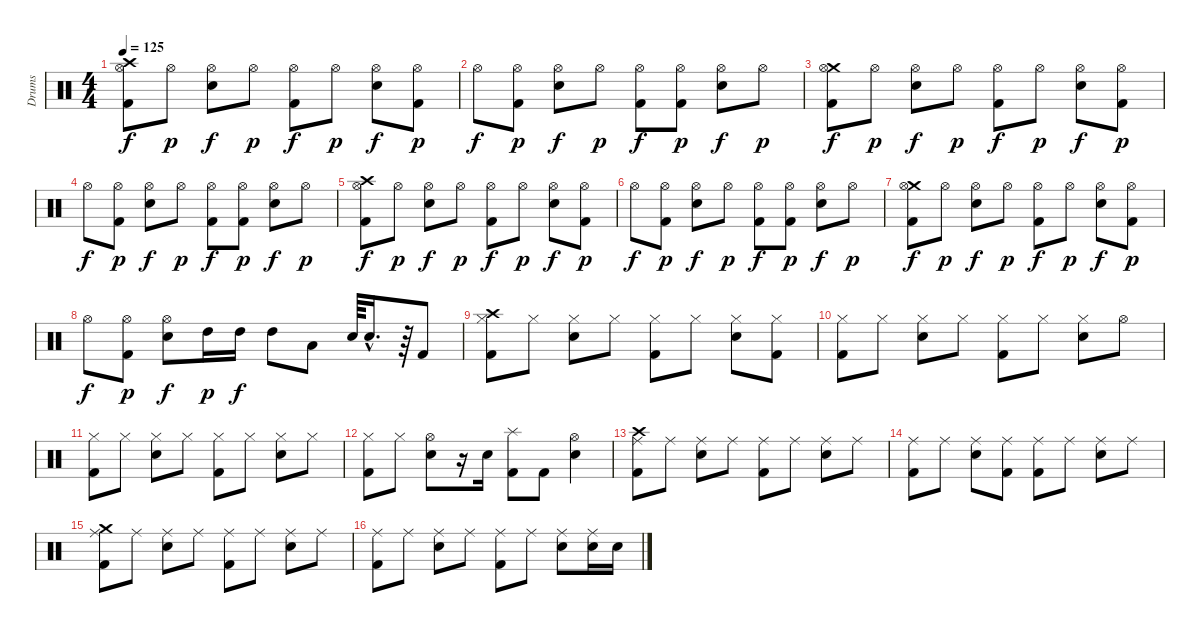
\track ("Drums" "Drums") {instrument percussion}
\staff {score}
\articulation defaults
\ts (4 4)
\tempo 125
\clef neutral
\ks c
("Crash high (hit)" "Hi-Hat (open)" "Kick (hit) 2").8{dy f} "Hi-Hat (open)".8{dy p} ("Hi-Hat (open)" "Electric Snare (hit)").8{dy f} "Hi-Hat (open)".8{dy p} ("Hi-Hat (open)" "Kick (hit) 2").8{dy f} "Hi-Hat (open)".8{dy p} ("Hi-Hat (open)" "Electric Snare (hit)").8{dy f} ("Hi-Hat (open)" "Kick (hit) 2").8{dy p} |
"Hi-Hat (open)".8{dy f} ("Hi-Hat (open)" "Kick (hit) 2").8{dy p} ("Hi-Hat (open)" "Electric Snare (hit)").8{dy f} "Hi-Hat (open)".8{dy p} ("Hi-Hat (open)" "Kick (hit) 2").8{dy f} ("Hi-Hat (open)" "Kick (hit) 2").8{dy p} ("Hi-Hat (open)" "Electric Snare (hit)").8{dy f} "Hi-Hat (open)".8{dy p} |
("Crash medium (hit)" "Hi-Hat (open)" "Kick (hit) 2").8{dy f} "Hi-Hat (open)".8{dy p} ("Hi-Hat (open)" "Electric Snare (hit)").8{dy f} "Hi-Hat (open)".8{dy p} ("Hi-Hat (open)" "Kick (hit) 2").8{dy f} "Hi-Hat (open)".8{dy p} ("Hi-Hat (open)" "Electric Snare (hit)").8{dy f} ("Hi-Hat (open)" "Kick (hit) 2").8{dy p} |
"Hi-Hat (open)".8{dy f} ("Hi-Hat (open)" "Kick (hit) 2").8{dy p} ("Hi-Hat (open)" "Electric Snare (hit)").8{dy f} "Hi-Hat (open)".8{dy p} ("Hi-Hat (open)" "Kick (hit) 2").8{dy f} ("Hi-Hat (open)" "Kick (hit) 2").8{dy p} ("Hi-Hat (open)" "Electric Snare (hit)").8{dy f} "Hi-Hat (open)".8{dy p} |
("Crash high (hit)" "Hi-Hat (open)" "Kick (hit) 2").8{dy f} "Hi-Hat (open)".8{dy p} ("Hi-Hat (open)" "Electric Snare (hit)").8{dy f} "Hi-Hat (open)".8{dy p} ("Hi-Hat (open)" "Kick (hit) 2").8{dy f} "Hi-Hat (open)".8{dy p} ("Hi-Hat (open)" "Electric Snare (hit)").8{dy f} ("Hi-Hat (open)" "Kick (hit) 2").8{dy p} |
"Hi-Hat (open)".8{dy f} ("Hi-Hat (open)" "Kick (hit) 2").8{dy p} ("Hi-Hat (open)" "Electric Snare (hit)").8{dy f} "Hi-Hat (open)".8{dy p} ("Hi-Hat (open)" "Kick (hit) 2").8{dy f} ("Hi-Hat (open)" "Kick (hit) 2").8{dy p} ("Hi-Hat (open)" "Electric Snare (hit)").8{dy f} "Hi-Hat (open)".8{dy p} |
("Crash medium (hit)" "Hi-Hat (open)" "Kick (hit) 2").8{dy f} "Hi-Hat (open)".8{dy p} ("Hi-Hat (open)" "Electric Snare (hit)").8{dy f} "Hi-Hat (open)".8{dy p} ("Hi-Hat (open)" "Kick (hit) 2").8{dy f} "Hi-Hat (open)".8{dy p} ("Hi-Hat (open)" "Electric Snare (hit)").8{dy f} ("Hi-Hat (open)" "Kick (hit) 2").8{dy p} |
"Hi-Hat (open)".8{dy f} ("Hi-Hat (open)" "Kick (hit) 2").8{dy p} ("Hi-Hat (open)" "Electric Snare (hit)").8{dy f} "High Tom (hit)".16{dy p} "High Tom (hit)".16{dy f} "High Tom (hit)".8 "Low Tom (hit)".8 "Electric Snare (hit)".64 "Electric Snare (hit)"{hac}.16{d} r.64 "Kick (hit) 2".8 |
("Crash high (hit)" "Hi-Hat (closed)" "Kick (hit) 2").8 "Hi-Hat (closed)".8 ("Hi-Hat (closed)" "Electric Snare (hit)").8 "Hi-Hat (closed)".8 ("Hi-Hat (closed)" "Kick (hit) 2").8 "Hi-Hat (closed)".8 ("Hi-Hat (closed)" "Electric Snare (hit)").8 ("Hi-Hat (closed)" "Kick (hit) 2").8 |
("Hi-Hat (closed)" "Kick (hit) 2").8 "Hi-Hat (closed)".8 ("Hi-Hat (closed)" "Electric Snare (hit)").8 "Hi-Hat (closed)".8 ("Hi-Hat (closed)" "Kick (hit) 2").8 "Hi-Hat (closed)".8 ("Hi-Hat (closed)" "Electric Snare (hit)").8 "Hi-Hat (open)".8 |
("Hi-Hat (closed)" "Kick (hit) 2").8 "Hi-Hat (closed)".8 ("Hi-Hat (closed)" "Electric Snare (hit)").8 "Hi-Hat (closed)".8 ("Hi-Hat (closed)" "Kick (hit) 2").8 "Hi-Hat (closed)".8 ("Hi-Hat (closed)" "Electric Snare (hit)").8 "Hi-Hat (closed)".8 |
("Hi-Hat (closed)" "Kick (hit) 2").8 "Hi-Hat (closed)".8 ("Hi-Hat (open)" "Electric Snare (hit)").8 r.16 "Electric Snare (hit)".16 ("Splash (hit)" "Kick (hit) 2").8 "Kick (hit) 2".8 ("Hi-Hat (open)" "Electric Snare (hit)").4 |
("Crash high (hit)" "Ride (middle)" "Kick (hit) 2").8 "Ride (middle)".8 ("Ride (middle)" "Electric Snare (hit)").8 "Ride (middle)".8 ("Ride (middle)" "Kick (hit) 2").8 "Ride (middle)".8 ("Ride (middle)" "Electric Snare (hit)").8 "Ride (middle)".8 |
("Ride (middle)" "Kick (hit) 2").8 "Ride (middle)".8 ("Ride (middle)" "Electric Snare (hit)").8 ("Ride (middle)" "Kick (hit) 2").8 ("Ride (middle)" "Kick (hit) 2").8 "Ride (middle)".8 ("Ride (middle)" "Electric Snare (hit)").8 "Ride (middle)".8 |
("Crash medium (hit)" "Ride (middle)" "Kick (hit) 2").8 "Ride (middle)".8 ("Ride (middle)" "Electric Snare (hit)").8 "Ride (middle)".8 ("Ride (middle)" "Kick (hit) 2").8 "Ride (middle)".8 ("Ride (middle)" "Electric Snare (hit)").8 "Ride (middle)".8 |
("Ride (middle)" "Kick (hit) 2").8 "Ride (middle)".8 ("Ride (middle)" "Electric Snare (hit)").8 "Ride (middle)".8 ("Ride (middle)" "Kick (hit) 2").8 "Ride (middle)".8 ("Ride (middle)" "Electric Snare (hit)").8 ("Ride (middle)" "Electric Snare (hit)").16 "Electric Snare (hit)".16
